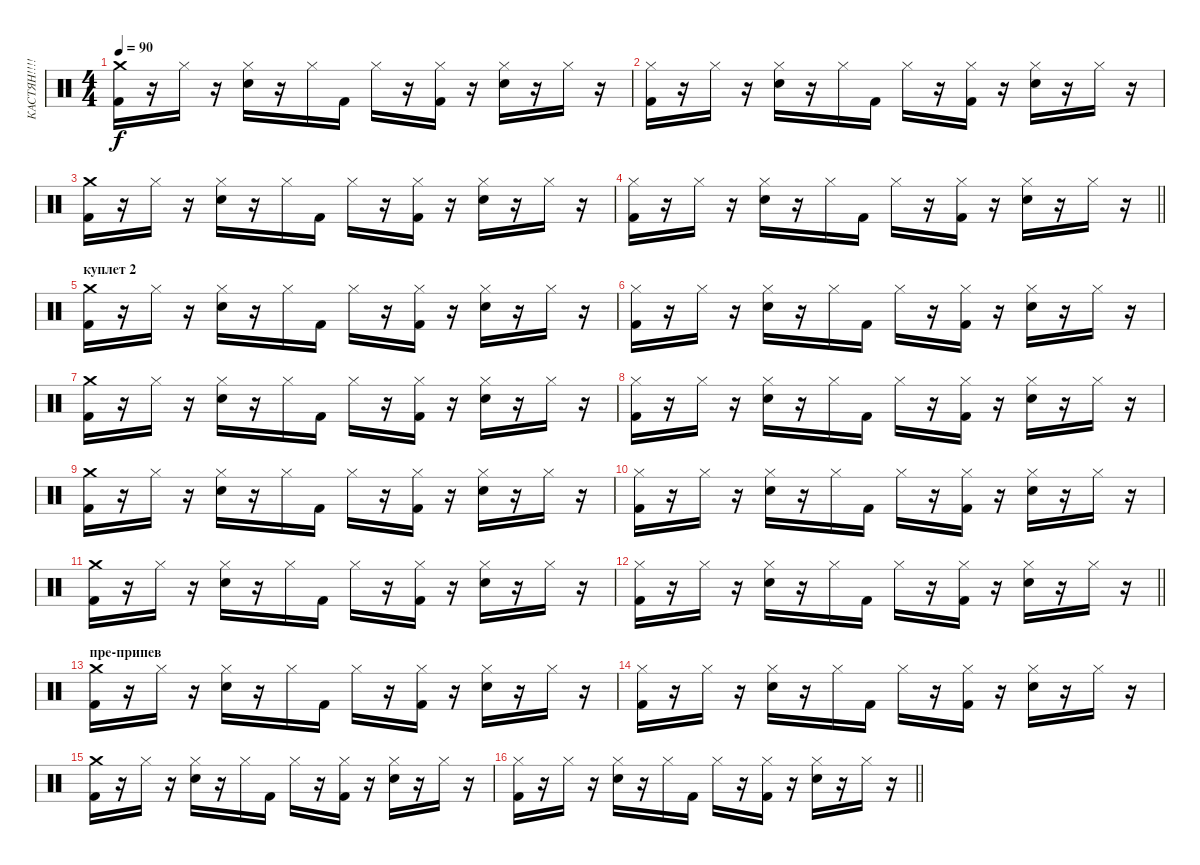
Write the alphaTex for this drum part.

\track ("КАСТЯН!!!!" "КАСТЯН!!!!") {instrument percussion}
\staff {score}
\articulation defaults
\ts (4 4)
\tempo 90
\clef neutral
\ks c
("Crash medium (hit)" "Kick (hit) 2").16{dy f} r.16 "Hi-Hat (closed)".16 r.16 ("Hi-Hat (closed)" "Snare (hit) 2").16 r.16 "Hi-Hat (closed)".16 "Kick (hit) 2".16 "Hi-Hat (closed)".16 r.16 ("Hi-Hat (closed)" "Kick (hit) 2").16 r.16 ("Hi-Hat (closed)" "Snare (hit) 2").16 r.16 "Hi-Hat (closed)".16 r.16 |
("Hi-Hat (closed)" "Kick (hit) 2").16 r.16 "Hi-Hat (closed)".16 r.16 ("Hi-Hat (closed)" "Snare (hit) 2").16 r.16 "Hi-Hat (closed)".16 "Kick (hit) 2".16 "Hi-Hat (closed)".16 r.16 ("Hi-Hat (closed)" "Kick (hit) 2").16 r.16 ("Hi-Hat (closed)" "Snare (hit) 2").16 r.16 "Hi-Hat (closed)".16 r.16 |
("Crash medium (hit)" "Kick (hit) 2").16 r.16 "Hi-Hat (closed)".16 r.16 ("Hi-Hat (closed)" "Snare (hit) 2").16 r.16 "Hi-Hat (closed)".16 "Kick (hit) 2".16 "Hi-Hat (closed)".16 r.16 ("Hi-Hat (closed)" "Kick (hit) 2").16 r.16 ("Hi-Hat (closed)" "Snare (hit) 2").16 r.16 "Hi-Hat (closed)".16 r.16 |
\barLineRight lightlight
("Hi-Hat (closed)" "Kick (hit) 2").16 r.16 "Hi-Hat (closed)".16 r.16 ("Hi-Hat (closed)" "Snare (hit) 2").16 r.16 "Hi-Hat (closed)".16 "Kick (hit) 2".16 "Hi-Hat (closed)".16 r.16 ("Hi-Hat (closed)" "Kick (hit) 2").16 r.16 ("Hi-Hat (closed)" "Snare (hit) 2").16 r.16 "Hi-Hat (closed)".16 r.16 |
\section ("" "куплет 2")
("Crash medium (hit)" "Kick (hit) 2").16 r.16 "Hi-Hat (closed)".16 r.16 ("Hi-Hat (closed)" "Snare (hit) 2").16 r.16 "Hi-Hat (closed)".16 "Kick (hit) 2".16 "Hi-Hat (closed)".16 r.16 ("Hi-Hat (closed)" "Kick (hit) 2").16 r.16 ("Hi-Hat (closed)" "Snare (hit) 2").16 r.16 "Hi-Hat (closed)".16 r.16 |
("Hi-Hat (closed)" "Kick (hit) 2").16 r.16 "Hi-Hat (closed)".16 r.16 ("Hi-Hat (closed)" "Snare (hit) 2").16 r.16 "Hi-Hat (closed)".16 "Kick (hit) 2".16 "Hi-Hat (closed)".16 r.16 ("Hi-Hat (closed)" "Kick (hit) 2").16 r.16 ("Hi-Hat (closed)" "Snare (hit) 2").16 r.16 "Hi-Hat (closed)".16 r.16 |
("Crash medium (hit)" "Kick (hit) 2").16 r.16 "Hi-Hat (closed)".16 r.16 ("Hi-Hat (closed)" "Snare (hit) 2").16 r.16 "Hi-Hat (closed)".16 "Kick (hit) 2".16 "Hi-Hat (closed)".16 r.16 ("Hi-Hat (closed)" "Kick (hit) 2").16 r.16 ("Hi-Hat (closed)" "Snare (hit) 2").16 r.16 "Hi-Hat (closed)".16 r.16 |
("Hi-Hat (closed)" "Kick (hit) 2").16 r.16 "Hi-Hat (closed)".16 r.16 ("Hi-Hat (closed)" "Snare (hit) 2").16 r.16 "Hi-Hat (closed)".16 "Kick (hit) 2".16 "Hi-Hat (closed)".16 r.16 ("Hi-Hat (closed)" "Kick (hit) 2").16 r.16 ("Hi-Hat (closed)" "Snare (hit) 2").16 r.16 "Hi-Hat (closed)".16 r.16 |
("Crash medium (hit)" "Kick (hit) 2").16 r.16 "Hi-Hat (closed)".16 r.16 ("Hi-Hat (closed)" "Snare (hit) 2").16 r.16 "Hi-Hat (closed)".16 "Kick (hit) 2".16 "Hi-Hat (closed)".16 r.16 ("Hi-Hat (closed)" "Kick (hit) 2").16 r.16 ("Hi-Hat (closed)" "Snare (hit) 2").16 r.16 "Hi-Hat (closed)".16 r.16 |
("Hi-Hat (closed)" "Kick (hit) 2").16 r.16 "Hi-Hat (closed)".16 r.16 ("Hi-Hat (closed)" "Snare (hit) 2").16 r.16 "Hi-Hat (closed)".16 "Kick (hit) 2".16 "Hi-Hat (closed)".16 r.16 ("Hi-Hat (closed)" "Kick (hit) 2").16 r.16 ("Hi-Hat (closed)" "Snare (hit) 2").16 r.16 "Hi-Hat (closed)".16 r.16 |
("Crash medium (hit)" "Kick (hit) 2").16 r.16 "Hi-Hat (closed)".16 r.16 ("Hi-Hat (closed)" "Snare (hit) 2").16 r.16 "Hi-Hat (closed)".16 "Kick (hit) 2".16 "Hi-Hat (closed)".16 r.16 ("Hi-Hat (closed)" "Kick (hit) 2").16 r.16 ("Hi-Hat (closed)" "Snare (hit) 2").16 r.16 "Hi-Hat (closed)".16 r.16 |
\barLineRight lightlight
("Hi-Hat (closed)" "Kick (hit) 2").16 r.16 "Hi-Hat (closed)".16 r.16 ("Hi-Hat (closed)" "Snare (hit) 2").16 r.16 "Hi-Hat (closed)".16 "Kick (hit) 2".16 "Hi-Hat (closed)".16 r.16 ("Hi-Hat (closed)" "Kick (hit) 2").16 r.16 ("Hi-Hat (closed)" "Snare (hit) 2").16 r.16 "Hi-Hat (closed)".16 r.16 |
\section ("" "пре-припев")
("Crash medium (hit)" "Kick (hit) 2").16 r.16 "Hi-Hat (closed)".16 r.16 ("Hi-Hat (closed)" "Snare (hit) 2").16 r.16 "Hi-Hat (closed)".16 "Kick (hit) 2".16 "Hi-Hat (closed)".16 r.16 ("Hi-Hat (closed)" "Kick (hit) 2").16 r.16 ("Hi-Hat (closed)" "Snare (hit) 2").16 r.16 "Hi-Hat (closed)".16 r.16 |
("Hi-Hat (closed)" "Kick (hit) 2").16 r.16 "Hi-Hat (closed)".16 r.16 ("Hi-Hat (closed)" "Snare (hit) 2").16 r.16 "Hi-Hat (closed)".16 "Kick (hit) 2".16 "Hi-Hat (closed)".16 r.16 ("Hi-Hat (closed)" "Kick (hit) 2").16 r.16 ("Hi-Hat (closed)" "Snare (hit) 2").16 r.16 "Hi-Hat (closed)".16 r.16 |
("Crash medium (hit)" "Kick (hit) 2").16 r.16 "Hi-Hat (closed)".16 r.16 ("Hi-Hat (closed)" "Snare (hit) 2").16 r.16 "Hi-Hat (closed)".16 "Kick (hit) 2".16 "Hi-Hat (closed)".16 r.16 ("Hi-Hat (closed)" "Kick (hit) 2").16 r.16 ("Hi-Hat (closed)" "Snare (hit) 2").16 r.16 "Hi-Hat (closed)".16 r.16 |
\barLineRight lightlight
("Hi-Hat (closed)" "Kick (hit) 2").16 r.16 "Hi-Hat (closed)".16 r.16 ("Hi-Hat (closed)" "Snare (hit) 2").16 r.16 "Hi-Hat (closed)".16 "Kick (hit) 2".16 "Hi-Hat (closed)".16 r.16 ("Hi-Hat (closed)" "Kick (hit) 2").16 r.16 ("Hi-Hat (closed)" "Snare (hit) 2").16 r.16 "Hi-Hat (closed)".16 r.16
